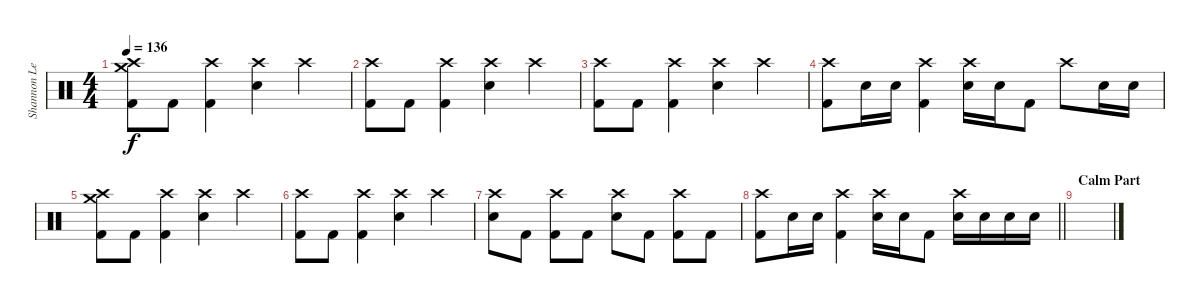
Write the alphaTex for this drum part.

\track ("Shannon Leto [Drums]" "Shannon Le") {instrument percussion}
\staff {score}
\articulation defaults
\ts (4 4)
\tempo 136
\clef neutral
\ks c
("Crash high (hit)" "Crash medium (hit)" "Kick (hit) 2").8{dy f} "Kick (hit) 2".8 ("Crash high (hit)" "Kick (hit) 2").4 ("Crash high (hit)" "Electric Snare (hit)").4 "Crash high (hit)".4 |
("Crash high (hit)" "Kick (hit) 2").8 "Kick (hit) 2".8 ("Crash high (hit)" "Kick (hit) 2").4 ("Crash high (hit)" "Electric Snare (hit)").4 "Crash high (hit)".4 |
("Crash high (hit)" "Kick (hit) 2").8 "Kick (hit) 2".8 ("Crash high (hit)" "Kick (hit) 2").4 ("Crash high (hit)" "Electric Snare (hit)").4 "Crash high (hit)".4 |
("Crash high (hit)" "Kick (hit) 2").8 "Electric Snare (hit)".16 "Electric Snare (hit)".16 ("Crash high (hit)" "Kick (hit) 2").4 ("Crash high (hit)" "Electric Snare (hit)").16 "Electric Snare (hit)".16 "Kick (hit) 2".8 "Crash high (hit)".8 "Electric Snare (hit)".16 "Electric Snare (hit)".16 |
("Crash high (hit)" "Crash medium (hit)" "Kick (hit) 2").8 "Kick (hit) 2".8 ("Crash high (hit)" "Kick (hit) 2").4 ("Crash high (hit)" "Electric Snare (hit)").4 "Crash high (hit)".4 |
("Crash high (hit)" "Kick (hit) 2").8 "Kick (hit) 2".8 ("Crash high (hit)" "Kick (hit) 2").4 ("Crash high (hit)" "Electric Snare (hit)").4 "Crash high (hit)".4 |
("Crash high (hit)" "Electric Snare (hit)").8 "Kick (hit) 2".8 ("Crash high (hit)" "Kick (hit) 2").8 "Kick (hit) 2".8 ("Crash high (hit)" "Electric Snare (hit)").8 "Kick (hit) 2".8 ("Crash high (hit)" "Kick (hit) 2").8 "Kick (hit) 2".8 |
\barLineRight lightlight
("Crash high (hit)" "Kick (hit) 2").8 "Electric Snare (hit)".16 "Electric Snare (hit)".16 ("Crash high (hit)" "Kick (hit) 2").4 ("Crash high (hit)" "Electric Snare (hit)").16 "Electric Snare (hit)".16 "Kick (hit) 2".8 ("Crash high (hit)" "Electric Snare (hit)").16 "Electric Snare (hit)".16 "Electric Snare (hit)".16 "Electric Snare (hit)".16 |
\section ("" "Calm Part")
